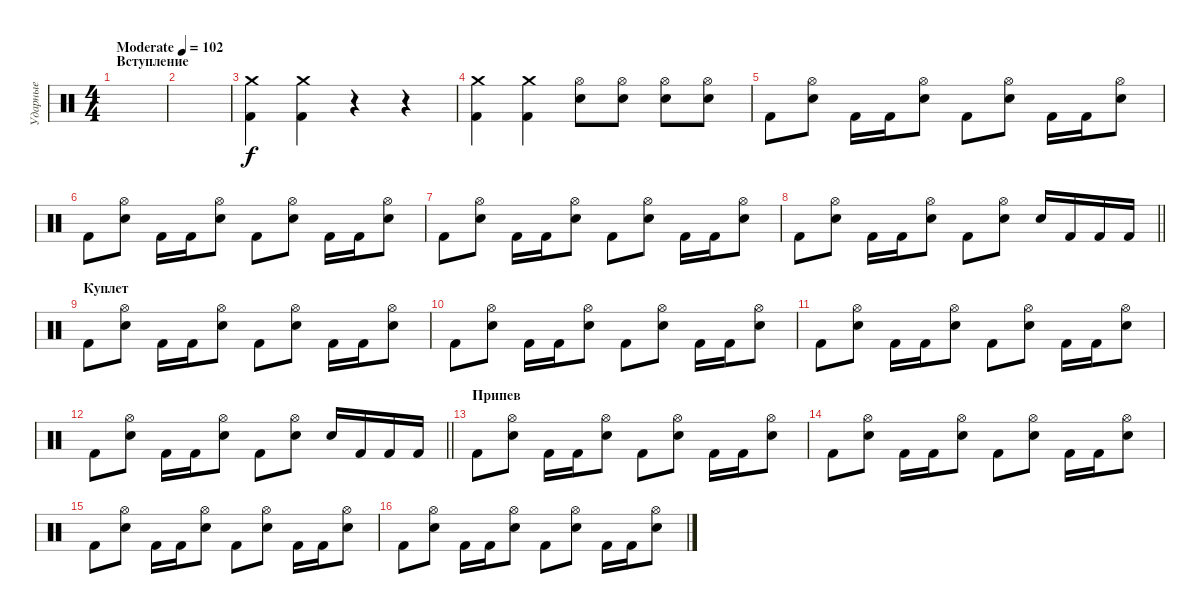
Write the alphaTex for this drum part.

\track ("Ударные" "Ударные") {instrument percussion}
\staff {score}
\articulation defaults
\ts (4 4)
\section ("" "Вступление")
\tempo (102 "Moderate")
\clef neutral
\ks c
|
|
("Crash medium (hit)" "Kick (hit) 2").4 ("Crash medium (hit)" "Kick (hit) 2").4 r.4 r.4 |
("Crash medium (hit)" "Kick (hit) 2").4 ("Crash medium (hit)" "Kick (hit) 2").4 ("Electric Snare (hit)" "Hi-Hat (open)").8 ("Electric Snare (hit)" "Hi-Hat (open)").8 ("Electric Snare (hit)" "Hi-Hat (open)").8 ("Electric Snare (hit)" "Hi-Hat (open)").8 |
"Kick (hit) 2".8 ("Electric Snare (hit)" "Hi-Hat (open)").8 "Kick (hit) 2".16 "Kick (hit) 2".16 ("Electric Snare (hit)" "Hi-Hat (open)").8 "Kick (hit) 2".8 ("Electric Snare (hit)" "Hi-Hat (open)").8 "Kick (hit) 2".16 "Kick (hit) 2".16 ("Electric Snare (hit)" "Hi-Hat (open)").8 |
"Kick (hit) 2".8 ("Electric Snare (hit)" "Hi-Hat (open)").8 "Kick (hit) 2".16 "Kick (hit) 2".16 ("Electric Snare (hit)" "Hi-Hat (open)").8 "Kick (hit) 2".8 ("Electric Snare (hit)" "Hi-Hat (open)").8 "Kick (hit) 2".16 "Kick (hit) 2".16 ("Electric Snare (hit)" "Hi-Hat (open)").8 |
"Kick (hit) 2".8 ("Electric Snare (hit)" "Hi-Hat (open)").8 "Kick (hit) 2".16 "Kick (hit) 2".16 ("Electric Snare (hit)" "Hi-Hat (open)").8 "Kick (hit) 2".8 ("Electric Snare (hit)" "Hi-Hat (open)").8 "Kick (hit) 2".16 "Kick (hit) 2".16 ("Electric Snare (hit)" "Hi-Hat (open)").8 |
\barLineRight lightlight "Kick (hit) 2".8
("Electric Snare (hit)" "Hi-Hat (open)").8 "Kick (hit) 2".16 "Kick (hit) 2".16 ("Electric Snare (hit)" "Hi-Hat (open)").8 "Kick (hit) 2".8 ("Electric Snare (hit)" "Hi-Hat (open)").8 "Electric Snare (hit)".16 "Kick (hit) 2".16 "Kick (hit) 2".16 "Kick (hit) 2".16 |
\section ("" "Куплет")
"Kick (hit) 2".8 ("Electric Snare (hit)" "Hi-Hat (open)").8 "Kick (hit) 2".16 "Kick (hit) 2".16 ("Electric Snare (hit)" "Hi-Hat (open)").8 "Kick (hit) 2".8 ("Electric Snare (hit)" "Hi-Hat (open)").8 "Kick (hit) 2".16 "Kick (hit) 2".16 ("Electric Snare (hit)" "Hi-Hat (open)").8 |
"Kick (hit) 2".8 ("Electric Snare (hit)" "Hi-Hat (open)").8 "Kick (hit) 2".16 "Kick (hit) 2".16 ("Electric Snare (hit)" "Hi-Hat (open)").8 "Kick (hit) 2".8 ("Electric Snare (hit)" "Hi-Hat (open)").8 "Kick (hit) 2".16 "Kick (hit) 2".16 ("Electric Snare (hit)" "Hi-Hat (open)").8 |
"Kick (hit) 2".8 ("Electric Snare (hit)" "Hi-Hat (open)").8 "Kick (hit) 2".16 "Kick (hit) 2".16 ("Electric Snare (hit)" "Hi-Hat (open)").8 "Kick (hit) 2".8 ("Electric Snare (hit)" "Hi-Hat (open)").8 "Kick (hit) 2".16 "Kick (hit) 2".16 ("Electric Snare (hit)" "Hi-Hat (open)").8 |
\barLineRight lightlight "Kick (hit) 2".8
("Electric Snare (hit)" "Hi-Hat (open)").8 "Kick (hit) 2".16 "Kick (hit) 2".16 ("Electric Snare (hit)" "Hi-Hat (open)").8 "Kick (hit) 2".8 ("Electric Snare (hit)" "Hi-Hat (open)").8 "Electric Snare (hit)".16 "Kick (hit) 2".16 "Kick (hit) 2".16 "Kick (hit) 2".16 |
\section ("" "Припев")
"Kick (hit) 2".8 ("Electric Snare (hit)" "Hi-Hat (open)").8 "Kick (hit) 2".16 "Kick (hit) 2".16 ("Electric Snare (hit)" "Hi-Hat (open)").8 "Kick (hit) 2".8 ("Electric Snare (hit)" "Hi-Hat (open)").8 "Kick (hit) 2".16 "Kick (hit) 2".16 ("Electric Snare (hit)" "Hi-Hat (open)").8 |
"Kick (hit) 2".8 ("Electric Snare (hit)" "Hi-Hat (open)").8 "Kick (hit) 2".16 "Kick (hit) 2".16 ("Electric Snare (hit)" "Hi-Hat (open)").8 "Kick (hit) 2".8 ("Electric Snare (hit)" "Hi-Hat (open)").8 "Kick (hit) 2".16 "Kick (hit) 2".16 ("Electric Snare (hit)" "Hi-Hat (open)").8 |
"Kick (hit) 2".8 ("Electric Snare (hit)" "Hi-Hat (open)").8 "Kick (hit) 2".16 "Kick (hit) 2".16 ("Electric Snare (hit)" "Hi-Hat (open)").8 "Kick (hit) 2".8 ("Electric Snare (hit)" "Hi-Hat (open)").8 "Kick (hit) 2".16 "Kick (hit) 2".16 ("Electric Snare (hit)" "Hi-Hat (open)").8 |
"Kick (hit) 2".8 ("Electric Snare (hit)" "Hi-Hat (open)").8 "Kick (hit) 2".16 "Kick (hit) 2".16 ("Electric Snare (hit)" "Hi-Hat (open)").8 "Kick (hit) 2".8 ("Electric Snare (hit)" "Hi-Hat (open)").8 "Kick (hit) 2".16 "Kick (hit) 2".16 ("Electric Snare (hit)" "Hi-Hat (open)").8
